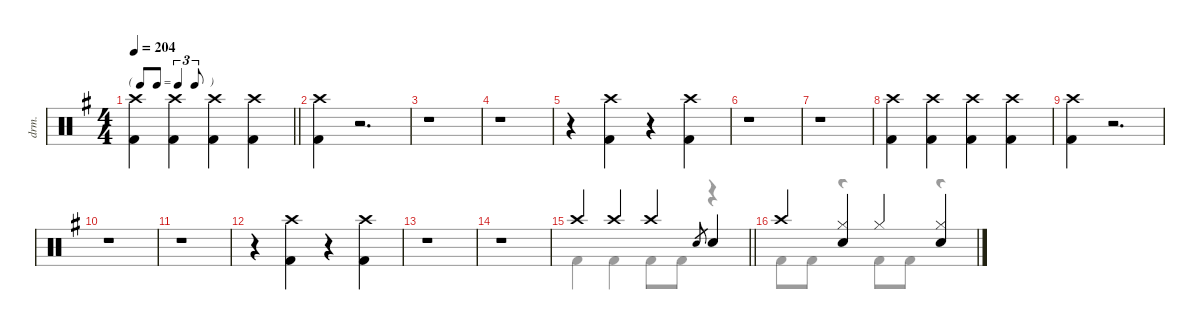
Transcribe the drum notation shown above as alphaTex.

\defaultSystemsLayout 4
\hideDynamics
\bracketExtendMode nobrackets
\otherSystemsTrackNameOrientation horizontal
\track ("Lars Ulrich" "drm.") {defaultSystemsLayout 8 instrument percussion}
\staff {score}
\articulation defaults
\voice
\ts (4 4)
\beaming (8 2 2 2 2)
\tf triplet8th
\tempo 204
\clef neutral
\barLineRight lightlight
\ks eminor
("Crash high (hit)"{acc forcenatural} "Kick (hit) 2"{acc forcenatural}).4{dy f beam Down} ("Crash high (hit)"{acc forcenatural} "Kick (hit) 2"{acc forcenatural}).4{beam Down} ("Crash high (hit)"{acc forcenatural} "Kick (hit) 2"{acc forcenatural}).4{beam Down} ("Crash high (hit)"{acc forcenatural} "Kick (hit) 2"{acc forcenatural}).4{beam Down} |
("Crash high (hit)"{acc forcenatural} "Kick (hit) 2"{acc forcenatural}).4{beam Down} r.2{d beam Down} |
r.1{beam Down} |
r.1{beam Down} |
r.4{beam Down} ("Crash high (hit)"{acc forcenatural} "Kick (hit) 2"{acc forcenatural}).4{beam Down} r.4{beam Down} ("Crash high (hit)"{acc forcenatural} "Kick (hit) 2"{acc forcenatural}).4{beam Down} |
r.1{beam Down} |
r.1{beam Down} |
("Crash high (hit)"{acc forcenatural} "Kick (hit) 2"{acc forcenatural}).4{beam Down} ("Crash high (hit)"{acc forcenatural} "Kick (hit) 2"{acc forcenatural}).4{beam Down} ("Crash high (hit)"{acc forcenatural} "Kick (hit) 2"{acc forcenatural}).4{beam Down} ("Crash high (hit)"{acc forcenatural} "Kick (hit) 2"{acc forcenatural}).4{beam Down} |
("Crash high (hit)"{acc forcenatural} "Kick (hit) 2"{acc forcenatural}).4{beam Down} r.2{d beam Down} |
r.1{beam Down} |
r.1{beam Down} |
r.4{beam Down} ("Crash high (hit)"{acc forcenatural} "Kick (hit) 2"{acc forcenatural}).4{beam Down} r.4{beam Down} ("Crash high (hit)"{acc forcenatural} "Kick (hit) 2"{acc forcenatural}).4{beam Down} |
r.1{beam Down} |
r.1{beam Down} |
\barLineRight lightlight "Crash high (hit)"{acc forcenatural}.4{beam Up} "Crash high (hit)"{acc forcenatural}.4{beam Up} "Crash high (hit)"{acc forcenatural}.4{beam Up} "Snare (hit) 2"{acc forcenatural}.8{gr dy mf beam Up} "Snare (hit) 2"{acc forcenatural}.4{dy f beam Up}
|
"Crash high (hit)"{acc forcenatural}.4{beam Up} ("Hi-Hat (closed)"{acc forcenatural} "Snare (hit) 2"{acc forcenatural}).4{beam Up} "Hi-Hat (closed)"{acc forcenatural}.4{beam Up} ("Hi-Hat (closed)"{acc forcenatural} "Snare (hit) 2"{acc forcenatural}).4{beam Up}
\voice
\clef neutral
\ottava regular
\simile none
\barLineRight lightlight
\ks eminor
|
|
|
|
|
|
|
|
|
|
|
|
|
|
\barLineRight lightlight "Kick (hit) 2"{acc forcenatural}.4{beam Down} "Kick (hit) 2"{acc forcenatural}.4{beam Down} "Kick (hit) 2"{acc forcenatural}.8{beam Down} "Kick (hit) 2"{acc forcenatural}.8{beam Down}
r.4{beam Down} |
"Kick (hit) 2"{acc forcenatural}.8{beam Down} "Kick (hit) 2"{acc forcenatural}.8{beam Down} r.4{beam Down} "Kick (hit) 2"{acc forcenatural}.8{beam Down} "Kick (hit) 2"{acc forcenatural}.8{beam Down} r.4{beam Down}
